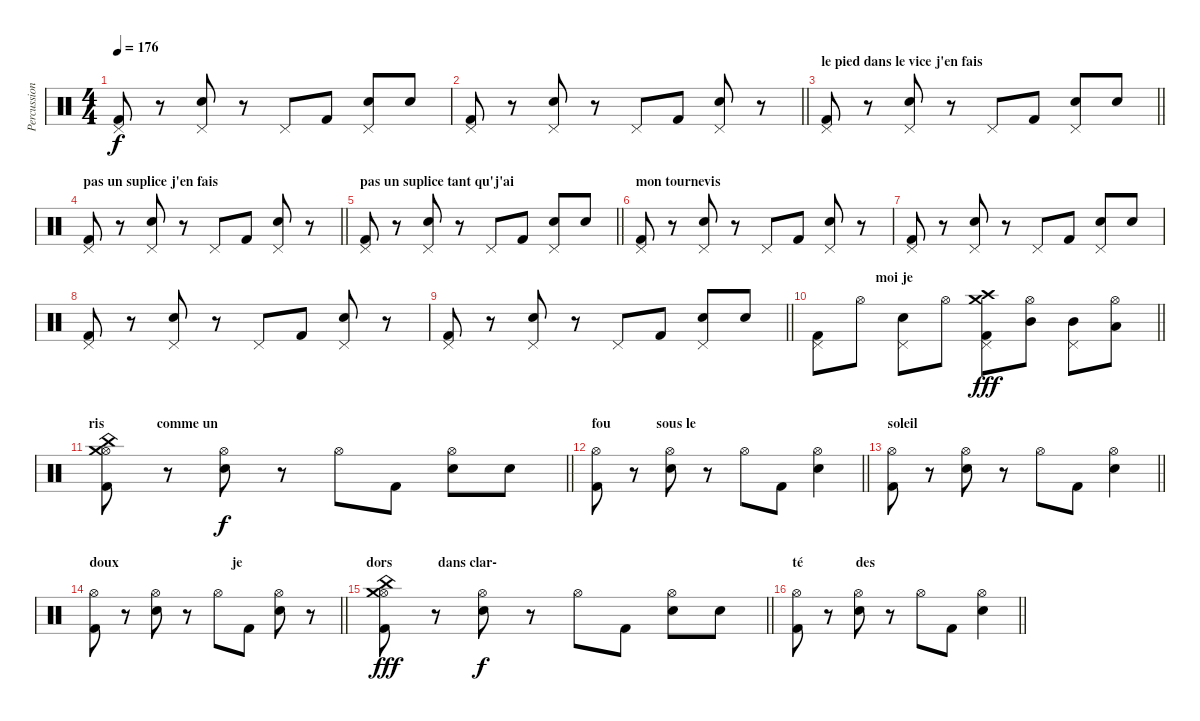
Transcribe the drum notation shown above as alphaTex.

\track ("Percussions" "Percussion") {instrument percussion}
\staff {score}
\articulation defaults
\ts (4 4)
\tempo 176
\clef neutral
\ks c
("Pedal Hi-Hat (hit)" "Kick (hit) 2").8{dy f} r.8 ("Pedal Hi-Hat (hit)" "Snare (hit) 2").8 r.8 "Pedal Hi-Hat (hit)".8 "Kick (hit) 2".8 ("Pedal Hi-Hat (hit)" "Snare (hit) 2").8 "Snare (hit) 2".8 |
\barLineRight lightlight
("Pedal Hi-Hat (hit)" "Kick (hit) 2").8 r.8 ("Pedal Hi-Hat (hit)" "Snare (hit) 2").8 r.8 "Pedal Hi-Hat (hit)".8 "Kick (hit) 2".8 ("Pedal Hi-Hat (hit)" "Snare (hit) 2").8 r.8 |
\section ("" "le pied dans le vice j'en fais")
\barLineRight lightlight
("Pedal Hi-Hat (hit)" "Kick (hit) 2").8 r.8 ("Pedal Hi-Hat (hit)" "Snare (hit) 2").8 r.8 "Pedal Hi-Hat (hit)".8 "Kick (hit) 2".8 ("Pedal Hi-Hat (hit)" "Snare (hit) 2").8 "Snare (hit) 2".8 |
\section ("" "pas un suplice j'en fais")
\barLineRight lightlight
("Pedal Hi-Hat (hit)" "Kick (hit) 2").8 r.8 ("Pedal Hi-Hat (hit)" "Snare (hit) 2").8 r.8 "Pedal Hi-Hat (hit)".8 "Kick (hit) 2".8 ("Pedal Hi-Hat (hit)" "Snare (hit) 2").8 r.8 |
\section ("" "pas un suplice tant qu'j'ai")
\barLineRight lightlight
("Pedal Hi-Hat (hit)" "Kick (hit) 2").8 r.8 ("Pedal Hi-Hat (hit)" "Snare (hit) 2").8 r.8 "Pedal Hi-Hat (hit)".8 "Kick (hit) 2".8 ("Pedal Hi-Hat (hit)" "Snare (hit) 2").8 "Snare (hit) 2".8 |
\section ("" "mon tournevis")
("Pedal Hi-Hat (hit)" "Kick (hit) 2").8 r.8 ("Pedal Hi-Hat (hit)" "Snare (hit) 2").8 r.8 "Pedal Hi-Hat (hit)".8 "Kick (hit) 2".8 ("Pedal Hi-Hat (hit)" "Snare (hit) 2").8 r.8 |
("Pedal Hi-Hat (hit)" "Kick (hit) 2").8 r.8 ("Pedal Hi-Hat (hit)" "Snare (hit) 2").8 r.8 "Pedal Hi-Hat (hit)".8 "Kick (hit) 2".8 ("Pedal Hi-Hat (hit)" "Snare (hit) 2").8 "Snare (hit) 2".8 |
("Pedal Hi-Hat (hit)" "Kick (hit) 2").8 r.8 ("Pedal Hi-Hat (hit)" "Snare (hit) 2").8 r.8 "Pedal Hi-Hat (hit)".8 "Kick (hit) 2".8 ("Pedal Hi-Hat (hit)" "Snare (hit) 2").8 r.8 |
\barLineRight lightlight
("Pedal Hi-Hat (hit)" "Kick (hit) 2").8 r.8 ("Pedal Hi-Hat (hit)" "Snare (hit) 2").8 r.8 "Pedal Hi-Hat (hit)".8 "Kick (hit) 2".8 ("Pedal Hi-Hat (hit)" "Snare (hit) 2").8 "Snare (hit) 2".8 |
\section ("" "                  moi je ")
\barLineRight lightlight
("Pedal Hi-Hat (hit)" "Kick (hit) 2").8 "Hi-Hat (open)".8 ("Pedal Hi-Hat (hit)" "Snare (hit) 2").8 "Hi-Hat (open)".8 ("Pedal Hi-Hat (hit)" "Kick (hit) 2" "Crash medium (hit)" "Crash high (hit)").8{dy fff} ("Hi-Hat (open)" "Mid Tom (hit)").8 ("Pedal Hi-Hat (hit)" "Mid Tom (hit)").8 ("Hi-Hat (open)" "Low Tom (hit)").8 |
\section ("" "ris               comme un")
\barLineRight lightlight
("Hi-Hat (open)" "Kick (hit) 2" "Crash medium (hit)" "China (hit)").8 r.8 ("Hi-Hat (open)" "Snare (hit) 2").8{dy f} r.8 "Hi-Hat (open)".8 "Kick (hit) 2".8 ("Hi-Hat (open)" "Snare (hit) 2").8 "Snare (hit) 2".8 |
\section ("" "fou             sous le")
\barLineRight lightlight
("Hi-Hat (open)" "Kick (hit) 2").8 r.8 ("Hi-Hat (open)" "Snare (hit) 2").8 r.8 "Hi-Hat (open)".8 "Kick (hit) 2".8 ("Hi-Hat (open)" "Snare (hit) 2").4 |
\section ("" "soleil ")
\barLineRight lightlight
("Hi-Hat (open)" "Kick (hit) 2").8 r.8 ("Hi-Hat (open)" "Snare (hit) 2").8 r.8 "Hi-Hat (open)".8 "Kick (hit) 2".8 ("Hi-Hat (open)" "Snare (hit) 2").4 |
\section ("" "doux                                je")
\barLineRight lightlight
("Hi-Hat (open)" "Kick (hit) 2").8 r.8 ("Hi-Hat (open)" "Snare (hit) 2").8 r.8 "Hi-Hat (open)".8 "Kick (hit) 2".8 ("Hi-Hat (open)" "Snare (hit) 2").8 r.8 |
\section ("" "dors             dans clar-")
\barLineRight lightlight
("Hi-Hat (open)" "Kick (hit) 2" "Crash medium (hit)" "China (hit)").8{dy fff} r.8 ("Hi-Hat (open)" "Snare (hit) 2").8{dy f} r.8 "Hi-Hat (open)".8 "Kick (hit) 2".8 ("Hi-Hat (open)" "Snare (hit) 2").8 "Snare (hit) 2".8 |
\section ("" "té               des")
\barLineRight lightlight
("Hi-Hat (open)" "Kick (hit) 2").8 r.8 ("Hi-Hat (open)" "Snare (hit) 2").8 r.8 "Hi-Hat (open)".8 "Kick (hit) 2".8 ("Hi-Hat (open)" "Snare (hit) 2").4
